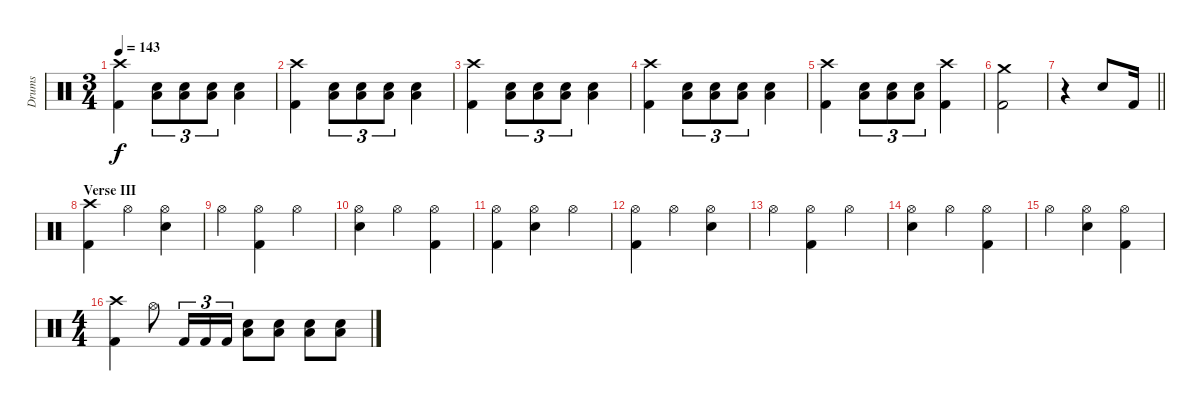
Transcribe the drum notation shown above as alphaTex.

\track ("Drums" "Drums") {instrument percussion}
\staff {score}
\articulation defaults
\ts (3 4)
\tempo 143
\clef neutral
\ks c
("Crash high (hit)" "Kick (hit) 2").4{dy f} ("Electric Snare (hit)" "Low Floor Tom (hit)").8{tu (3 2)} ("Electric Snare (hit)" "Low Floor Tom (hit)").8{tu (3 2)} ("Electric Snare (hit)" "Low Floor Tom (hit)").8{tu (3 2)} ("Electric Snare (hit)" "Low Floor Tom (hit)").4 |
("Crash high (hit)" "Kick (hit) 2").4 ("Electric Snare (hit)" "Low Floor Tom (hit)").8{tu (3 2)} ("Electric Snare (hit)" "Low Floor Tom (hit)").8{tu (3 2)} ("Electric Snare (hit)" "Low Floor Tom (hit)").8{tu (3 2)} ("Electric Snare (hit)" "Low Floor Tom (hit)").4 |
("Crash high (hit)" "Kick (hit) 2").4 ("Electric Snare (hit)" "Low Floor Tom (hit)").8{tu (3 2)} ("Electric Snare (hit)" "Low Floor Tom (hit)").8{tu (3 2)} ("Electric Snare (hit)" "Low Floor Tom (hit)").8{tu (3 2)} ("Electric Snare (hit)" "Low Floor Tom (hit)").4 |
("Crash high (hit)" "Kick (hit) 2").4 ("Electric Snare (hit)" "Low Floor Tom (hit)").8{tu (3 2)} ("Electric Snare (hit)" "Low Floor Tom (hit)").8{tu (3 2)} ("Electric Snare (hit)" "Low Floor Tom (hit)").8{tu (3 2)} ("Electric Snare (hit)" "Low Floor Tom (hit)").4 |
("Crash high (hit)" "Kick (hit) 2").4 ("Electric Snare (hit)" "Low Floor Tom (hit)").8{tu (3 2)} ("Electric Snare (hit)" "Low Floor Tom (hit)").8{tu (3 2)} ("Electric Snare (hit)" "Low Floor Tom (hit)").8{tu (3 2)} ("Crash high (hit)" "Kick (hit) 2").4 |
("Crash medium (hit)" "Kick (hit) 2").2 |
\barLineRight lightlight
r.4 "Electric Snare (hit)".8 "Kick (hit) 2".16 |
\section ("" "Verse III")
("Crash high (hit)" "Kick (hit) 2").4 "Hi-Hat (open)".4 ("Hi-Hat (open)" "Electric Snare (hit)").4 |
"Hi-Hat (open)".4 ("Hi-Hat (open)" "Kick (hit) 2").4 "Hi-Hat (open)".4 |
("Hi-Hat (open)" "Electric Snare (hit)").4 "Hi-Hat (open)".4 ("Hi-Hat (open)" "Kick (hit) 2").4 |
("Hi-Hat (open)" "Kick (hit) 2").4 ("Hi-Hat (open)" "Electric Snare (hit)").4 "Hi-Hat (open)".4 |
("Hi-Hat (open)" "Kick (hit) 2").4 "Hi-Hat (open)".4 ("Hi-Hat (open)" "Electric Snare (hit)").4 |
"Hi-Hat (open)".4 ("Hi-Hat (open)" "Kick (hit) 2").4 "Hi-Hat (open)".4 |
("Hi-Hat (open)" "Electric Snare (hit)").4 "Hi-Hat (open)".4 ("Hi-Hat (open)" "Kick (hit) 2").4 |
"Hi-Hat (open)".4 ("Hi-Hat (open)" "Electric Snare (hit)").4 ("Hi-Hat (open)" "Kick (hit) 2").4 |
\ts (4 4)
("Crash high (hit)" "Kick (hit) 2").4 "Hi-Hat (open)".8 "Kick (hit) 2".16{tu (3 2)} "Kick (hit) 2".16{tu (3 2)} "Kick (hit) 2".16{tu (3 2)} ("Electric Snare (hit)" "Low Floor Tom (hit)").8 ("Electric Snare (hit)" "Low Floor Tom (hit)").8 ("Electric Snare (hit)" "Low Floor Tom (hit)").8 ("Electric Snare (hit)" "Low Floor Tom (hit)").8
